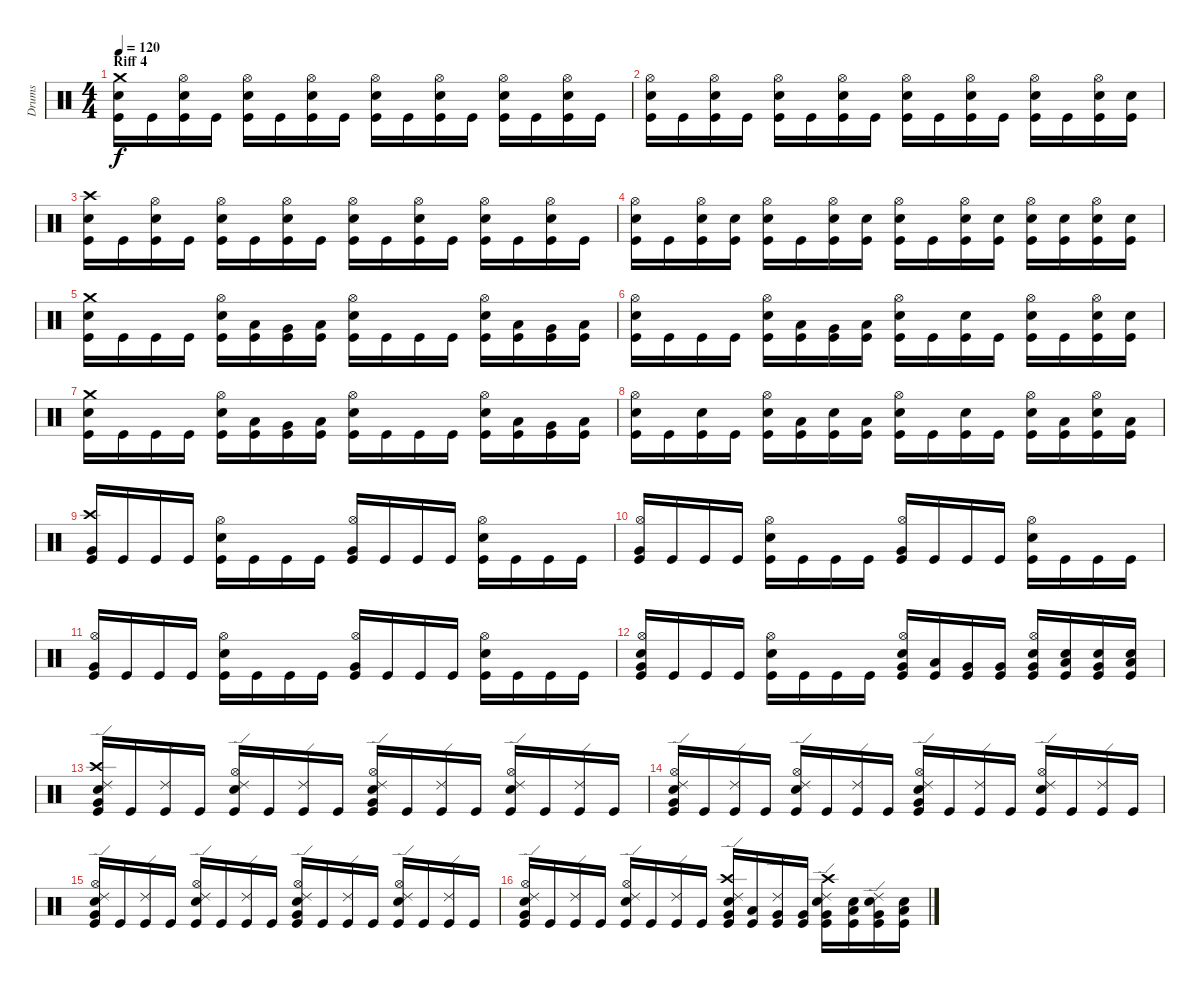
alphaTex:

\track ("Drums" "Drums") {instrument percussion}
\staff {score}
\articulation defaults
\ts (4 4)
\section ("" "Riff 4")
\tempo 120
\clef neutral
\ks c
("Crash medium (hit)" "Snare (hit) 2" "Kick (hit)").16{dy f} "Kick (hit)".16 ("Hi-Hat (open)" "Snare (hit) 2" "Kick (hit)").16 "Kick (hit)".16 ("Hi-Hat (open)" "Snare (hit) 2" "Kick (hit)").16 "Kick (hit)".16 ("Hi-Hat (open)" "Snare (hit) 2" "Kick (hit)").16 "Kick (hit)".16 ("Hi-Hat (open)" "Snare (hit) 2" "Kick (hit)").16 "Kick (hit)".16 ("Hi-Hat (open)" "Snare (hit) 2" "Kick (hit)").16 "Kick (hit)".16 ("Hi-Hat (open)" "Snare (hit) 2" "Kick (hit)").16 "Kick (hit)".16 ("Hi-Hat (open)" "Snare (hit) 2" "Kick (hit)").16 "Kick (hit)".16 |
("Hi-Hat (open)" "Snare (hit) 2" "Kick (hit)").16 "Kick (hit)".16 ("Hi-Hat (open)" "Snare (hit) 2" "Kick (hit)").16 "Kick (hit)".16 ("Hi-Hat (open)" "Snare (hit) 2" "Kick (hit)").16 "Kick (hit)".16 ("Hi-Hat (open)" "Snare (hit) 2" "Kick (hit)").16 "Kick (hit)".16 ("Hi-Hat (open)" "Snare (hit) 2" "Kick (hit)").16 "Kick (hit)".16 ("Hi-Hat (open)" "Snare (hit) 2" "Kick (hit)").16 "Kick (hit)".16 ("Hi-Hat (open)" "Snare (hit) 2" "Kick (hit)").16 "Kick (hit)".16 ("Hi-Hat (open)" "Snare (hit) 2" "Kick (hit)").16 ("Snare (hit) 2" "Kick (hit)").16 |
("Crash high (hit)" "Snare (hit) 2" "Kick (hit)").16 "Kick (hit)".16 ("Hi-Hat (open)" "Snare (hit) 2" "Kick (hit)").16 "Kick (hit)".16 ("Hi-Hat (open)" "Snare (hit) 2" "Kick (hit)").16 "Kick (hit)".16 ("Hi-Hat (open)" "Snare (hit) 2" "Kick (hit)").16 "Kick (hit)".16 ("Hi-Hat (open)" "Snare (hit) 2" "Kick (hit)").16 "Kick (hit)".16 ("Hi-Hat (open)" "Snare (hit) 2" "Kick (hit)").16 "Kick (hit)".16 ("Hi-Hat (open)" "Snare (hit) 2" "Kick (hit)").16 "Kick (hit)".16 ("Hi-Hat (open)" "Snare (hit) 2" "Kick (hit)").16 "Kick (hit)".16 |
("Hi-Hat (open)" "Snare (hit) 2" "Kick (hit)").16 "Kick (hit)".16 ("Hi-Hat (open)" "Snare (hit) 2" "Kick (hit)").16 ("Snare (hit) 2" "Kick (hit)").16 ("Hi-Hat (open)" "Snare (hit) 2" "Kick (hit)").16 "Kick (hit)".16 ("Hi-Hat (open)" "Snare (hit) 2" "Kick (hit)").16 ("Snare (hit) 2" "Kick (hit)").16 ("Hi-Hat (open)" "Snare (hit) 2" "Kick (hit)").16 "Kick (hit)".16 ("Hi-Hat (open)" "Snare (hit) 2" "Kick (hit)").16 ("Snare (hit) 2" "Kick (hit)").16 ("Hi-Hat (open)" "Snare (hit) 2" "Kick (hit)").16 ("Electric Snare (hit)" "Kick (hit)").16 ("Hi-Hat (open)" "Snare (hit) 2" "Kick (hit)").16 ("Snare (hit) 2" "Kick (hit)").16 |
("Crash medium (hit)" "Snare (hit) 2" "Kick (hit)").16 "Kick (hit)".16 "Kick (hit)".16 "Kick (hit)".16 ("Hi-Hat (open)" "Snare (hit) 2" "Kick (hit)").16 ("Low Tom (hit)" "Kick (hit)").16 ("Very Low Tom (hit)" "Kick (hit)").16 ("Low Floor Tom (hit)" "Kick (hit)").16 ("Hi-Hat (open)" "Snare (hit) 2" "Kick (hit)").16 "Kick (hit)".16 "Kick (hit)".16 "Kick (hit)".16 ("Hi-Hat (open)" "Snare (hit) 2" "Kick (hit)").16 ("Low Tom (hit)" "Kick (hit)").16 ("Very Low Tom (hit)" "Kick (hit)").16 ("Low Floor Tom (hit)" "Kick (hit)").16 |
("Hi-Hat (open)" "Snare (hit) 2" "Kick (hit)").16 "Kick (hit)".16 "Kick (hit)".16 "Kick (hit)".16 ("Hi-Hat (open)" "Snare (hit) 2" "Kick (hit)").16 ("Low Tom (hit)" "Kick (hit)").16 ("Very Low Tom (hit)" "Kick (hit)").16 ("Low Floor Tom (hit)" "Kick (hit)").16 ("Hi-Hat (open)" "Snare (hit) 2" "Kick (hit)").16 "Kick (hit)".16 ("Snare (hit) 2" "Kick (hit)").16 "Kick (hit)".16 ("Hi-Hat (open)" "Snare (hit) 2" "Kick (hit)").16 "Kick (hit)".16 ("Hi-Hat (open)" "Snare (hit) 2" "Kick (hit)").16 ("Snare (hit) 2" "Kick (hit)").16 |
("Crash medium (hit)" "Snare (hit) 2" "Kick (hit)").16 "Kick (hit)".16 "Kick (hit)".16 "Kick (hit)".16 ("Hi-Hat (open)" "Snare (hit) 2" "Kick (hit)").16 ("Low Tom (hit)" "Kick (hit)").16 ("Very Low Tom (hit)" "Kick (hit)").16 ("Low Floor Tom (hit)" "Kick (hit)").16 ("Hi-Hat (open)" "Snare (hit) 2" "Kick (hit)").16 "Kick (hit)".16 "Kick (hit)".16 "Kick (hit)".16 ("Hi-Hat (open)" "Snare (hit) 2" "Kick (hit)").16 ("Low Tom (hit)" "Kick (hit)").16 ("Very Low Tom (hit)" "Kick (hit)").16 ("Low Floor Tom (hit)" "Kick (hit)").16 |
("Hi-Hat (open)" "Snare (hit) 2" "Kick (hit)").16 "Kick (hit)".16 ("Snare (hit) 2" "Kick (hit)").16 "Kick (hit)".16 ("Hi-Hat (open)" "Snare (hit) 2" "Kick (hit)").16 ("Low Tom (hit)" "Kick (hit)").16 ("Snare (hit) 2" "Kick (hit)").16 ("Low Floor Tom (hit)" "Kick (hit)").16 ("Hi-Hat (open)" "Snare (hit) 2" "Kick (hit)").16 "Kick (hit)".16 ("Snare (hit) 2" "Kick (hit)").16 "Kick (hit)".16 ("Hi-Hat (open)" "Snare (hit) 2" "Kick (hit)").16 ("Low Tom (hit)" "Kick (hit)").16 ("Hi-Hat (open)" "Snare (hit) 2" "Kick (hit)").16 ("Low Floor Tom (hit)" "Kick (hit)").16 |
("Crash high (hit)" "Very Low Tom (hit)" "Kick (hit)").16 "Kick (hit)".16 "Kick (hit)".16 "Kick (hit)".16 ("Hi-Hat (open)" "Snare (hit) 2" "Kick (hit)").16 "Kick (hit)".16 "Kick (hit)".16 "Kick (hit)".16 ("Hi-Hat (open)" "Very Low Tom (hit)" "Kick (hit)").16 "Kick (hit)".16 "Kick (hit)".16 "Kick (hit)".16 ("Hi-Hat (open)" "Snare (hit) 2" "Kick (hit)").16 "Kick (hit)".16 "Kick (hit)".16 "Kick (hit)".16 |
("Hi-Hat (open)" "Very Low Tom (hit)" "Kick (hit)").16 "Kick (hit)".16 "Kick (hit)".16 "Kick (hit)".16 ("Hi-Hat (open)" "Snare (hit) 2" "Kick (hit)").16 "Kick (hit)".16 "Kick (hit)".16 "Kick (hit)".16 ("Hi-Hat (open)" "Very Low Tom (hit)" "Kick (hit)").16 "Kick (hit)".16 "Kick (hit)".16 "Kick (hit)".16 ("Hi-Hat (open)" "Snare (hit) 2" "Kick (hit)").16 "Kick (hit)".16 "Kick (hit)".16 "Kick (hit)".16 |
("Hi-Hat (open)" "Very Low Tom (hit)" "Kick (hit)").16 "Kick (hit)".16 "Kick (hit)".16 "Kick (hit)".16 ("Hi-Hat (open)" "Snare (hit) 2" "Kick (hit)").16 "Kick (hit)".16 "Kick (hit)".16 "Kick (hit)".16 ("Hi-Hat (open)" "Very Low Tom (hit)" "Kick (hit)").16 "Kick (hit)".16 "Kick (hit)".16 "Kick (hit)".16 ("Hi-Hat (open)" "Snare (hit) 2" "Kick (hit)").16 "Kick (hit)".16 "Kick (hit)".16 "Kick (hit)".16 |
("Hi-Hat (open)" "Snare (hit) 2" "Very Low Tom (hit)" "Kick (hit)").16 "Kick (hit)".16 "Kick (hit)".16 "Kick (hit)".16 ("Hi-Hat (open)" "Snare (hit) 2" "Kick (hit)").16 "Kick (hit)".16 "Kick (hit)".16 "Kick (hit)".16 ("Hi-Hat (open)" "Snare (hit) 2" "Very Low Tom (hit)" "Kick (hit)").16 ("Low Tom (hit)" "Kick (hit)").16 ("Very Low Tom (hit)" "Kick (hit)").16 ("Very Low Tom (hit)" "Kick (hit)").16 ("Hi-Hat (open)" "Snare (hit) 2" "Very Low Tom (hit)" "Kick (hit)").16 ("Snare (hit) 2" "Low Tom (hit)" "Kick (hit)").16 ("Snare (hit) 2" "Very Low Tom (hit)" "Kick (hit)").16 ("Snare (hit) 2" "Low Floor Tom (hit)" "Kick (hit)").16 |
("Crash high (hit)" "Ride (edge) 2" "Snare (hit) 2" "Very Low Tom (hit)" "Kick (hit)").16 "Kick (hit)".16 ("Ride (edge) 2" "Kick (hit)").16 "Kick (hit)".16 ("Hi-Hat (open)" "Ride (edge) 2" "Snare (hit) 2" "Kick (hit)").16 "Kick (hit)".16 ("Ride (edge) 2" "Kick (hit)").16 "Kick (hit)".16 ("Hi-Hat (open)" "Ride (edge) 2" "Snare (hit) 2" "Very Low Tom (hit)" "Kick (hit)").16 "Kick (hit)".16 ("Ride (edge) 2" "Kick (hit)").16 "Kick (hit)".16 ("Hi-Hat (open)" "Ride (edge) 2" "Snare (hit) 2" "Kick (hit)").16 "Kick (hit)".16 ("Ride (edge) 2" "Kick (hit)").16 "Kick (hit)".16 |
("Hi-Hat (open)" "Ride (edge) 2" "Snare (hit) 2" "Very Low Tom (hit)" "Kick (hit)").16 "Kick (hit)".16 ("Ride (edge) 2" "Kick (hit)").16 "Kick (hit)".16 ("Hi-Hat (open)" "Ride (edge) 2" "Snare (hit) 2" "Kick (hit)").16 "Kick (hit)".16 ("Ride (edge) 2" "Kick (hit)").16 "Kick (hit)".16 ("Hi-Hat (open)" "Ride (edge) 2" "Snare (hit) 2" "Very Low Tom (hit)" "Kick (hit)").16 "Kick (hit)".16 ("Ride (edge) 2" "Kick (hit)").16 "Kick (hit)".16 ("Hi-Hat (open)" "Ride (edge) 2" "Snare (hit) 2" "Kick (hit)").16 "Kick (hit)".16 ("Ride (edge) 2" "Kick (hit)").16 "Kick (hit)".16 |
("Hi-Hat (open)" "Ride (edge) 2" "Snare (hit) 2" "Very Low Tom (hit)" "Kick (hit)").16 "Kick (hit)".16 ("Ride (edge) 2" "Kick (hit)").16 "Kick (hit)".16 ("Hi-Hat (open)" "Ride (edge) 2" "Snare (hit) 2" "Kick (hit)").16 "Kick (hit)".16 ("Ride (edge) 2" "Kick (hit)").16 "Kick (hit)".16 ("Hi-Hat (open)" "Ride (edge) 2" "Snare (hit) 2" "Very Low Tom (hit)" "Kick (hit)").16 "Kick (hit)".16 ("Ride (edge) 2" "Kick (hit)").16 "Kick (hit)".16 ("Hi-Hat (open)" "Ride (edge) 2" "Snare (hit) 2" "Kick (hit)").16 "Kick (hit)".16 ("Ride (edge) 2" "Kick (hit)").16 "Kick (hit)".16 |
("Hi-Hat (open)" "Ride (edge) 2" "Snare (hit) 2" "Very Low Tom (hit)" "Kick (hit)").16 "Kick (hit)".16 ("Ride (edge) 2" "Kick (hit)").16 "Kick (hit)".16 ("Hi-Hat (open)" "Ride (edge) 2" "Snare (hit) 2" "Kick (hit)").16 "Kick (hit)".16 ("Ride (edge) 2" "Kick (hit)").16 "Kick (hit)".16 ("Crash high (hit)" "Ride (edge) 2" "Snare (hit) 2" "Very Low Tom (hit)" "Kick (hit)").16 ("Low Tom (hit)" "Kick (hit)").16 ("Ride (edge) 2" "Very Low Tom (hit)" "Kick (hit)").16 ("Very Low Tom (hit)" "Kick (hit)").16 ("Crash high (hit)" "Ride (edge) 2" "Snare (hit) 2" "Very Low Tom (hit)" "Kick (hit)").16 ("Snare (hit) 2" "Low Tom (hit)" "Kick (hit)").16 ("Ride (edge) 2" "Snare (hit) 2" "Very Low Tom (hit)" "Kick (hit)").16 ("Snare (hit) 2" "Low Floor Tom (hit)" "Kick (hit)").16
